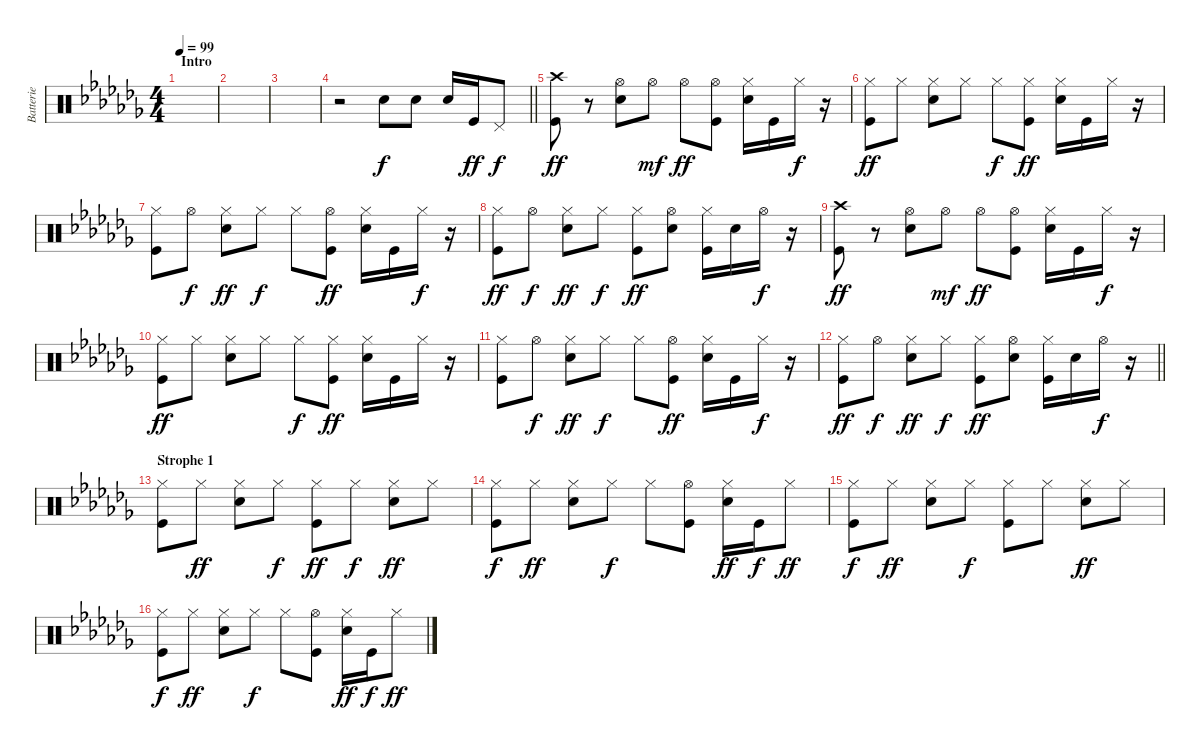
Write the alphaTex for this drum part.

\track ("Batterie" "Batterie") {instrument percussion}
\staff {score}
\articulation defaults
\ts (4 4)
\section ("" "Intro")
\tempo 99
\clef neutral
\ks cb
|
|
|
\barLineRight lightlight
r.2 "Snare (hit) 2".8 "Snare (hit) 2".8 "Snare (hit) 2".16 "Kick (hit)".16{dy ff} "Pedal Hi-Hat (hit)".8{dy f} |
("Crash high (hit)" "Kick (hit)").8{dy ff} r.8 ("Hi-Hat (open)" "Snare (hit) 2").8 "Hi-Hat (open)".8{dy mf} "Hi-Hat (open)".8{dy ff} ("Hi-Hat (open)" "Kick (hit)").8 ("Hi-Hat (closed)" "Snare (hit) 2").16 "Kick (hit)".16 "Hi-Hat (closed)".16{dy f} r.16 |
("Hi-Hat (closed)" "Kick (hit)").8{dy ff} "Hi-Hat (closed)".8 ("Hi-Hat (closed)" "Snare (hit) 2").8 "Hi-Hat (closed)".8 "Hi-Hat (closed)".8{dy f} ("Hi-Hat (closed)" "Kick (hit)").8{dy ff} ("Hi-Hat (closed)" "Snare (hit) 2").16 "Kick (hit)".16 "Hi-Hat (closed)".16 r.16 |
("Hi-Hat (closed)" "Kick (hit)").8 "Hi-Hat (open)".8{dy f} ("Hi-Hat (closed)" "Snare (hit) 2").8{dy ff} "Hi-Hat (closed)".8{dy f} "Hi-Hat (closed)".8 ("Hi-Hat (open)" "Kick (hit)").8{dy ff} ("Hi-Hat (closed)" "Snare (hit) 2").16 "Kick (hit)".16 "Hi-Hat (closed)".16{dy f} r.16 |
("Hi-Hat (closed)" "Kick (hit)").8{dy ff} "Hi-Hat (open)".8{dy f} ("Hi-Hat (closed)" "Snare (hit) 2").8{dy ff} "Hi-Hat (closed)".8{dy f} ("Hi-Hat (closed)" "Kick (hit)").8{dy ff} ("Hi-Hat (open)" "Snare (hit) 2").8 ("Hi-Hat (closed)" "Kick (hit)").16 "Snare (hit) 2".16 "Hi-Hat (open)".16{dy f} r.16 |
("Crash high (hit)" "Kick (hit)").8{dy ff} r.8 ("Hi-Hat (open)" "Snare (hit) 2").8 "Hi-Hat (open)".8{dy mf} "Hi-Hat (open)".8{dy ff} ("Hi-Hat (open)" "Kick (hit)").8 ("Hi-Hat (closed)" "Snare (hit) 2").16 "Kick (hit)".16 "Hi-Hat (closed)".16{dy f} r.16 |
("Hi-Hat (closed)" "Kick (hit)").8{dy ff} "Hi-Hat (closed)".8 ("Hi-Hat (closed)" "Snare (hit) 2").8 "Hi-Hat (closed)".8 "Hi-Hat (closed)".8{dy f} ("Hi-Hat (closed)" "Kick (hit)").8{dy ff} ("Hi-Hat (closed)" "Snare (hit) 2").16 "Kick (hit)".16 "Hi-Hat (closed)".16 r.16 |
("Hi-Hat (closed)" "Kick (hit)").8 "Hi-Hat (open)".8{dy f} ("Hi-Hat (closed)" "Snare (hit) 2").8{dy ff} "Hi-Hat (closed)".8{dy f} "Hi-Hat (closed)".8 ("Hi-Hat (open)" "Kick (hit)").8{dy ff} ("Hi-Hat (closed)" "Snare (hit) 2").16 "Kick (hit)".16 "Hi-Hat (closed)".16{dy f} r.16 |
\barLineRight lightlight
("Hi-Hat (closed)" "Kick (hit)").8{dy ff} "Hi-Hat (open)".8{dy f} ("Hi-Hat (closed)" "Snare (hit) 2").8{dy ff} "Hi-Hat (closed)".8{dy f} ("Hi-Hat (closed)" "Kick (hit)").8{dy ff} ("Hi-Hat (open)" "Snare (hit) 2").8 ("Hi-Hat (closed)" "Kick (hit)").16 "Snare (hit) 2".16 "Hi-Hat (open)".16{dy f} r.16 |
\section ("" "Strophe 1")
("Hi-Hat (closed)" "Kick (hit)").8 "Hi-Hat (closed)".8{dy ff} ("Hi-Hat (closed)" "Snare (hit) 2").8 "Hi-Hat (closed)".8{dy f} ("Hi-Hat (closed)" "Kick (hit)").8{dy ff} "Hi-Hat (closed)".8{dy f} ("Hi-Hat (closed)" "Snare (hit) 2").8{dy ff} "Hi-Hat (closed)".8 |
("Hi-Hat (closed)" "Kick (hit)").8{dy f} "Hi-Hat (closed)".8{dy ff} ("Hi-Hat (closed)" "Snare (hit) 2").8 "Hi-Hat (closed)".8{dy f} "Hi-Hat (closed)".8 ("Hi-Hat (open)" "Kick (hit)").8 ("Hi-Hat (closed)" "Snare (hit) 2").16{dy ff} "Kick (hit)".16{dy f} "Hi-Hat (closed)".8{dy ff} |
("Hi-Hat (closed)" "Kick (hit)").8{dy f} "Hi-Hat (closed)".8{dy ff} ("Hi-Hat (closed)" "Snare (hit) 2").8 "Hi-Hat (closed)".8{dy f} ("Hi-Hat (closed)" "Kick (hit)").8 "Hi-Hat (closed)".8 ("Hi-Hat (closed)" "Snare (hit) 2").8{dy ff} "Hi-Hat (closed)".8 |
("Hi-Hat (closed)" "Kick (hit)").8{dy f} "Hi-Hat (closed)".8{dy ff} ("Hi-Hat (closed)" "Snare (hit) 2").8 "Hi-Hat (closed)".8{dy f} "Hi-Hat (closed)".8 ("Hi-Hat (open)" "Kick (hit)").8 ("Hi-Hat (closed)" "Snare (hit) 2").16{dy ff} "Kick (hit)".16{dy f} "Hi-Hat (closed)".8{dy ff}
